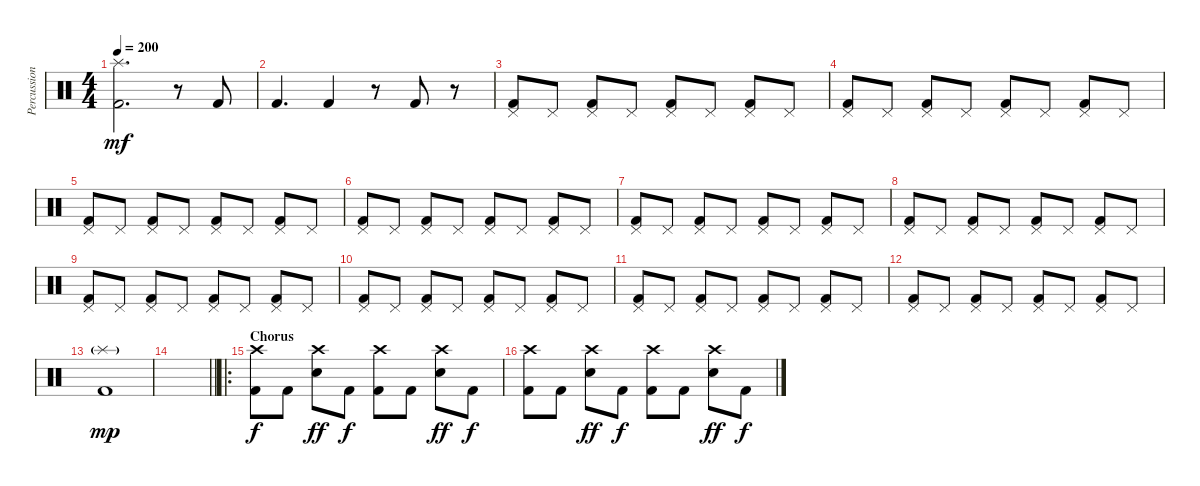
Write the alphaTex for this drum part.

\track ("Percussion" "Percussion") {instrument percussion}
\staff {score}
\articulation defaults
\ts (4 4)
\tempo 200
\clef neutral
\ks c
("Splash (hit)" "Kick (hit) 2").2{d dy mf} r.8 "Kick (hit) 2".8 |
"Kick (hit) 2".4{d} "Kick (hit) 2".4 r.8 "Kick (hit) 2".8 r.8 |
("Pedal Hi-Hat (hit)" "Kick (hit) 2").8 "Pedal Hi-Hat (hit)".8 ("Pedal Hi-Hat (hit)" "Kick (hit) 2").8 "Pedal Hi-Hat (hit)".8 ("Pedal Hi-Hat (hit)" "Kick (hit) 2").8 "Pedal Hi-Hat (hit)".8 ("Pedal Hi-Hat (hit)" "Kick (hit) 2").8 "Pedal Hi-Hat (hit)".8 |
("Pedal Hi-Hat (hit)" "Kick (hit) 2").8 "Pedal Hi-Hat (hit)".8 ("Pedal Hi-Hat (hit)" "Kick (hit) 2").8 "Pedal Hi-Hat (hit)".8 ("Pedal Hi-Hat (hit)" "Kick (hit) 2").8 "Pedal Hi-Hat (hit)".8 ("Pedal Hi-Hat (hit)" "Kick (hit) 2").8 "Pedal Hi-Hat (hit)".8 |
("Pedal Hi-Hat (hit)" "Kick (hit) 2").8 "Pedal Hi-Hat (hit)".8 ("Pedal Hi-Hat (hit)" "Kick (hit) 2").8 "Pedal Hi-Hat (hit)".8 ("Pedal Hi-Hat (hit)" "Kick (hit) 2").8 "Pedal Hi-Hat (hit)".8 ("Pedal Hi-Hat (hit)" "Kick (hit) 2").8 "Pedal Hi-Hat (hit)".8 |
("Pedal Hi-Hat (hit)" "Kick (hit) 2").8 "Pedal Hi-Hat (hit)".8 ("Pedal Hi-Hat (hit)" "Kick (hit) 2").8 "Pedal Hi-Hat (hit)".8 ("Pedal Hi-Hat (hit)" "Kick (hit) 2").8 "Pedal Hi-Hat (hit)".8 ("Pedal Hi-Hat (hit)" "Kick (hit) 2").8 "Pedal Hi-Hat (hit)".8 |
("Pedal Hi-Hat (hit)" "Kick (hit) 2").8 "Pedal Hi-Hat (hit)".8 ("Pedal Hi-Hat (hit)" "Kick (hit) 2").8 "Pedal Hi-Hat (hit)".8 ("Pedal Hi-Hat (hit)" "Kick (hit) 2").8 "Pedal Hi-Hat (hit)".8 ("Pedal Hi-Hat (hit)" "Kick (hit) 2").8 "Pedal Hi-Hat (hit)".8 |
("Pedal Hi-Hat (hit)" "Kick (hit) 2").8 "Pedal Hi-Hat (hit)".8 ("Pedal Hi-Hat (hit)" "Kick (hit) 2").8 "Pedal Hi-Hat (hit)".8 ("Pedal Hi-Hat (hit)" "Kick (hit) 2").8 "Pedal Hi-Hat (hit)".8 ("Pedal Hi-Hat (hit)" "Kick (hit) 2").8 "Pedal Hi-Hat (hit)".8 |
("Pedal Hi-Hat (hit)" "Kick (hit) 2").8 "Pedal Hi-Hat (hit)".8 ("Pedal Hi-Hat (hit)" "Kick (hit) 2").8 "Pedal Hi-Hat (hit)".8 ("Pedal Hi-Hat (hit)" "Kick (hit) 2").8 "Pedal Hi-Hat (hit)".8 ("Pedal Hi-Hat (hit)" "Kick (hit) 2").8 "Pedal Hi-Hat (hit)".8 |
("Pedal Hi-Hat (hit)" "Kick (hit) 2").8 "Pedal Hi-Hat (hit)".8 ("Pedal Hi-Hat (hit)" "Kick (hit) 2").8 "Pedal Hi-Hat (hit)".8 ("Pedal Hi-Hat (hit)" "Kick (hit) 2").8 "Pedal Hi-Hat (hit)".8 ("Pedal Hi-Hat (hit)" "Kick (hit) 2").8 "Pedal Hi-Hat (hit)".8 |
("Pedal Hi-Hat (hit)" "Kick (hit) 2").8 "Pedal Hi-Hat (hit)".8 ("Pedal Hi-Hat (hit)" "Kick (hit) 2").8 "Pedal Hi-Hat (hit)".8 ("Pedal Hi-Hat (hit)" "Kick (hit) 2").8 "Pedal Hi-Hat (hit)".8 ("Pedal Hi-Hat (hit)" "Kick (hit) 2").8 "Pedal Hi-Hat (hit)".8 |
("Pedal Hi-Hat (hit)" "Kick (hit) 2").8 "Pedal Hi-Hat (hit)".8 ("Pedal Hi-Hat (hit)" "Kick (hit) 2").8 "Pedal Hi-Hat (hit)".8 ("Pedal Hi-Hat (hit)" "Kick (hit) 2").8 "Pedal Hi-Hat (hit)".8 ("Pedal Hi-Hat (hit)" "Kick (hit) 2").8 "Pedal Hi-Hat (hit)".8 |
("Splash (hit)"{g} "Kick (hit) 2").1{dy mp} |
\barLineRight lightlight
|
\ro
\section ("" "Chorus")
("Crash high (hit)" "Kick (hit) 2").8{dy f} "Kick (hit) 2".8 ("Crash high (hit)" "Snare (hit) 2").8{dy ff} "Kick (hit) 2".8{dy f} ("Crash high (hit)" "Kick (hit) 2").8 "Kick (hit) 2".8 ("Crash high (hit)" "Snare (hit) 2").8{dy ff} "Kick (hit) 2".8{dy f} |
("Crash high (hit)" "Kick (hit) 2").8 "Kick (hit) 2".8 ("Crash high (hit)" "Snare (hit) 2").8{dy ff} "Kick (hit) 2".8{dy f} ("Crash high (hit)" "Kick (hit) 2").8 "Kick (hit) 2".8 ("Crash high (hit)" "Snare (hit) 2").8{dy ff} "Kick (hit) 2".8{dy f}
